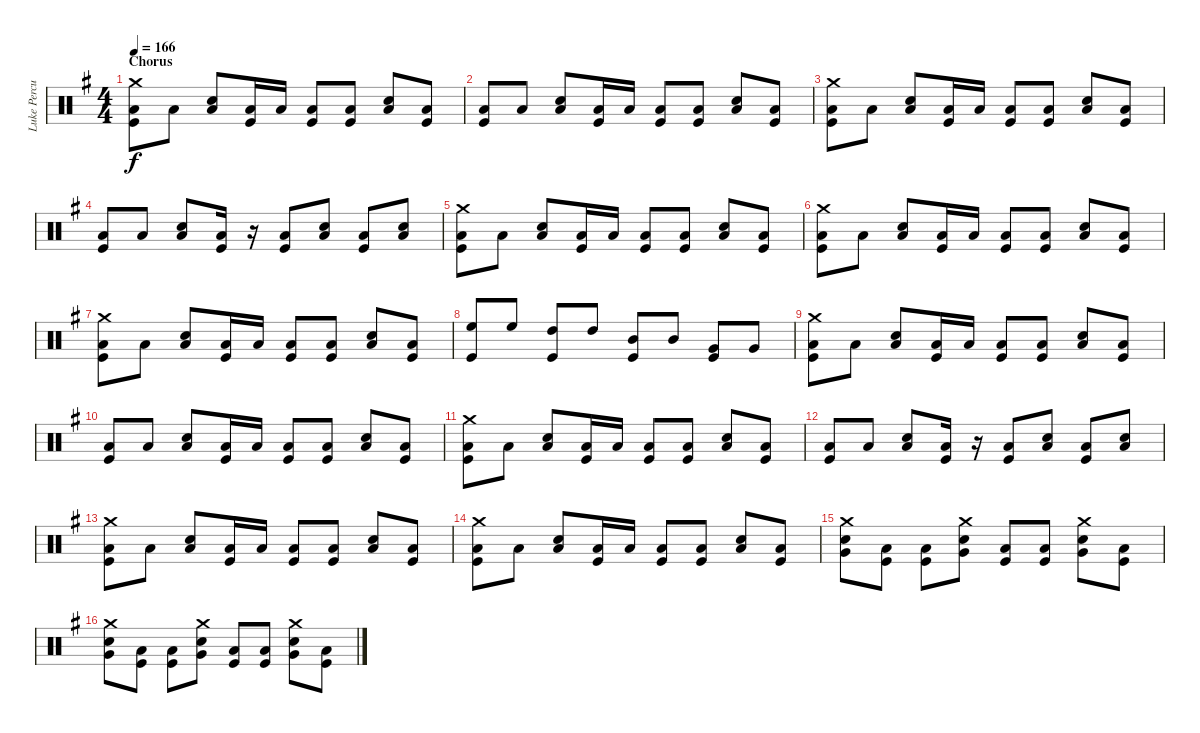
\track ("Luke Percussion" "Luke Percu") {instrument percussion}
\staff {score}
\articulation defaults
\ts (4 4)
\section ("" "Chorus")
\tempo 166
\clef neutral
\ks eminor
("Crash medium (hit)" "Low Floor Tom (hit)" "Kick (hit)").8{dy f} "Low Floor Tom (hit)".8 ("Snare (hit) 2" "Low Floor Tom (hit)").8 ("Low Floor Tom (hit)" "Kick (hit)").16 "Low Floor Tom (hit)".16 ("Low Floor Tom (hit)" "Kick (hit)").8 ("Low Floor Tom (hit)" "Kick (hit)").8 ("Snare (hit) 2" "Low Floor Tom (hit)").8 ("Low Floor Tom (hit)" "Kick (hit)").8 |
("Low Floor Tom (hit)" "Kick (hit)").8 "Low Floor Tom (hit)".8 ("Snare (hit) 2" "Low Floor Tom (hit)").8 ("Low Floor Tom (hit)" "Kick (hit)").16 "Low Floor Tom (hit)".16 ("Low Floor Tom (hit)" "Kick (hit)").8 ("Low Floor Tom (hit)" "Kick (hit)").8 ("Snare (hit) 2" "Low Floor Tom (hit)").8 ("Low Floor Tom (hit)" "Kick (hit)").8 |
("Crash medium (hit)" "Low Floor Tom (hit)" "Kick (hit)").8 "Low Floor Tom (hit)".8 ("Snare (hit) 2" "Low Floor Tom (hit)").8 ("Low Floor Tom (hit)" "Kick (hit)").16 "Low Floor Tom (hit)".16 ("Low Floor Tom (hit)" "Kick (hit)").8 ("Low Floor Tom (hit)" "Kick (hit)").8 ("Snare (hit) 2" "Low Floor Tom (hit)").8 ("Low Floor Tom (hit)" "Kick (hit)").8 |
("Low Floor Tom (hit)" "Kick (hit)").8 "Low Floor Tom (hit)".8 ("Snare (hit) 2" "Low Floor Tom (hit)").8 ("Low Floor Tom (hit)" "Kick (hit)").16 r.16 ("Low Floor Tom (hit)" "Kick (hit)").8 ("Snare (hit) 2" "Low Floor Tom (hit)").8 ("Low Floor Tom (hit)" "Kick (hit)").8 ("Snare (hit) 2" "Low Floor Tom (hit)").8 |
("Crash medium (hit)" "Low Floor Tom (hit)" "Kick (hit)").8 "Low Floor Tom (hit)".8 ("Snare (hit) 2" "Low Floor Tom (hit)").8 ("Low Floor Tom (hit)" "Kick (hit)").16 "Low Floor Tom (hit)".16 ("Low Floor Tom (hit)" "Kick (hit)").8 ("Low Floor Tom (hit)" "Kick (hit)").8 ("Snare (hit) 2" "Low Floor Tom (hit)").8 ("Low Floor Tom (hit)" "Kick (hit)").8 |
("Crash medium (hit)" "Low Floor Tom (hit)" "Kick (hit)").8 "Low Floor Tom (hit)".8 ("Snare (hit) 2" "Low Floor Tom (hit)").8 ("Low Floor Tom (hit)" "Kick (hit)").16 "Low Floor Tom (hit)".16 ("Low Floor Tom (hit)" "Kick (hit)").8 ("Low Floor Tom (hit)" "Kick (hit)").8 ("Snare (hit) 2" "Low Floor Tom (hit)").8 ("Low Floor Tom (hit)" "Kick (hit)").8 |
("Crash medium (hit)" "Low Floor Tom (hit)" "Kick (hit)").8 "Low Floor Tom (hit)".8 ("Snare (hit) 2" "Low Floor Tom (hit)").8 ("Low Floor Tom (hit)" "Kick (hit)").16 "Low Floor Tom (hit)".16 ("Low Floor Tom (hit)" "Kick (hit)").8 ("Low Floor Tom (hit)" "Kick (hit)").8 ("Snare (hit) 2" "Low Floor Tom (hit)").8 ("Low Floor Tom (hit)" "Kick (hit)").8 |
("High Floor Tom (hit)" "Kick (hit)").8 "High Floor Tom (hit)".8 ("High Tom (hit)" "Kick (hit)").8 "High Tom (hit)".8 ("Mid Tom (hit)" "Kick (hit)").8 "Mid Tom (hit)".8 ("Very Low Tom (hit)" "Kick (hit)").8 "Very Low Tom (hit)".8 |
("Crash medium (hit)" "Low Floor Tom (hit)" "Kick (hit)").8 "Low Floor Tom (hit)".8 ("Snare (hit) 2" "Low Floor Tom (hit)").8 ("Low Floor Tom (hit)" "Kick (hit)").16 "Low Floor Tom (hit)".16 ("Low Floor Tom (hit)" "Kick (hit)").8 ("Low Floor Tom (hit)" "Kick (hit)").8 ("Snare (hit) 2" "Low Floor Tom (hit)").8 ("Low Floor Tom (hit)" "Kick (hit)").8 |
("Low Floor Tom (hit)" "Kick (hit)").8 "Low Floor Tom (hit)".8 ("Snare (hit) 2" "Low Floor Tom (hit)").8 ("Low Floor Tom (hit)" "Kick (hit)").16 "Low Floor Tom (hit)".16 ("Low Floor Tom (hit)" "Kick (hit)").8 ("Low Floor Tom (hit)" "Kick (hit)").8 ("Snare (hit) 2" "Low Floor Tom (hit)").8 ("Low Floor Tom (hit)" "Kick (hit)").8 |
("Crash medium (hit)" "Low Floor Tom (hit)" "Kick (hit)").8 "Low Floor Tom (hit)".8 ("Snare (hit) 2" "Low Floor Tom (hit)").8 ("Low Floor Tom (hit)" "Kick (hit)").16 "Low Floor Tom (hit)".16 ("Low Floor Tom (hit)" "Kick (hit)").8 ("Low Floor Tom (hit)" "Kick (hit)").8 ("Snare (hit) 2" "Low Floor Tom (hit)").8 ("Low Floor Tom (hit)" "Kick (hit)").8 |
("Low Floor Tom (hit)" "Kick (hit)").8 "Low Floor Tom (hit)".8 ("Snare (hit) 2" "Low Floor Tom (hit)").8 ("Low Floor Tom (hit)" "Kick (hit)").16 r.16 ("Low Floor Tom (hit)" "Kick (hit)").8 ("Snare (hit) 2" "Low Floor Tom (hit)").8 ("Low Floor Tom (hit)" "Kick (hit)").8 ("Snare (hit) 2" "Low Floor Tom (hit)").8 |
("Crash medium (hit)" "Low Floor Tom (hit)" "Kick (hit)").8 "Low Floor Tom (hit)".8 ("Snare (hit) 2" "Low Floor Tom (hit)").8 ("Low Floor Tom (hit)" "Kick (hit)").16 "Low Floor Tom (hit)".16 ("Low Floor Tom (hit)" "Kick (hit)").8 ("Low Floor Tom (hit)" "Kick (hit)").8 ("Snare (hit) 2" "Low Floor Tom (hit)").8 ("Low Floor Tom (hit)" "Kick (hit)").8 |
("Crash medium (hit)" "Low Floor Tom (hit)" "Kick (hit)").8 "Low Floor Tom (hit)".8 ("Snare (hit) 2" "Low Floor Tom (hit)").8 ("Low Floor Tom (hit)" "Kick (hit)").16 "Low Floor Tom (hit)".16 ("Low Floor Tom (hit)" "Kick (hit)").8 ("Low Floor Tom (hit)" "Kick (hit)").8 ("Snare (hit) 2" "Low Floor Tom (hit)").8 ("Low Floor Tom (hit)" "Kick (hit)").8 |
("Crash medium (hit)" "Very Low Tom (hit)" "Snare (hit) 2").8 ("Low Floor Tom (hit)" "Kick (hit)").8 ("Low Floor Tom (hit)" "Kick (hit)").8 ("Crash medium (hit)" "Very Low Tom (hit)" "Snare (hit) 2").8 ("Low Floor Tom (hit)" "Kick (hit)").8 ("Low Floor Tom (hit)" "Kick (hit)").8 ("Crash medium (hit)" "Very Low Tom (hit)" "Snare (hit) 2").8 ("Low Floor Tom (hit)" "Kick (hit)").8 |
("Crash medium (hit)" "Very Low Tom (hit)" "Snare (hit) 2").8 ("Low Floor Tom (hit)" "Kick (hit)").8 ("Low Floor Tom (hit)" "Kick (hit)").8 ("Crash medium (hit)" "Very Low Tom (hit)" "Snare (hit) 2").8 ("Low Floor Tom (hit)" "Kick (hit)").8 ("Low Floor Tom (hit)" "Kick (hit)").8 ("Crash medium (hit)" "Very Low Tom (hit)" "Snare (hit) 2").8 ("Low Floor Tom (hit)" "Kick (hit)").8
